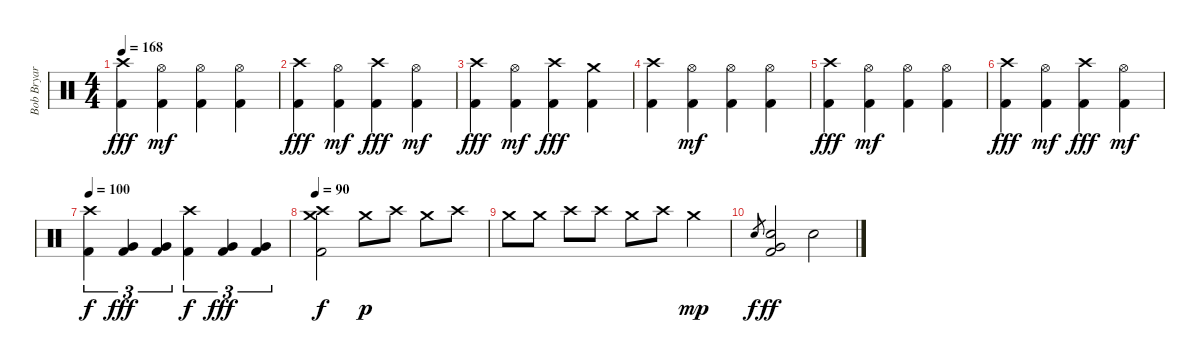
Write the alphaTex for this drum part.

\track ("Bob Bryar" "Bob Bryar") {instrument percussion}
\staff {score}
\articulation defaults
\ts (4 4)
\tempo 168
\clef neutral
\ks c
("Crash high (hit)" "Kick (hit) 2").4{dy fff} ("Hi-Hat (open)" "Kick (hit) 2").4{dy mf} ("Hi-Hat (open)" "Kick (hit) 2").4 ("Hi-Hat (open)" "Kick (hit) 2").4 |
("Crash high (hit)" "Kick (hit) 2").4{dy fff} ("Hi-Hat (open)" "Kick (hit) 2").4{dy mf} ("Crash high (hit)" "Kick (hit) 2").4{dy fff} ("Hi-Hat (open)" "Kick (hit) 2").4{dy mf} |
("Crash high (hit)" "Kick (hit) 2").4{dy fff} ("Hi-Hat (open)" "Kick (hit) 2").4{dy mf} ("Crash high (hit)" "Kick (hit) 2").4{dy fff} ("Crash medium (hit)" "Kick (hit) 2").4 |
("Crash high (hit)" "Kick (hit) 2").4 ("Hi-Hat (open)" "Kick (hit) 2").4{dy mf} ("Hi-Hat (open)" "Kick (hit) 2").4 ("Hi-Hat (open)" "Kick (hit) 2").4 |
("Crash high (hit)" "Kick (hit) 2").4{dy fff} ("Hi-Hat (open)" "Kick (hit) 2").4{dy mf} ("Hi-Hat (open)" "Kick (hit) 2").4 ("Hi-Hat (open)" "Kick (hit) 2").4 |
("Crash high (hit)" "Kick (hit) 2").4{dy fff} ("Hi-Hat (open)" "Kick (hit) 2").4{dy mf} ("Crash high (hit)" "Kick (hit) 2").4{dy fff} ("Hi-Hat (open)" "Kick (hit) 2").4{dy mf} |
\tempo 100
("Crash high (hit)" "Kick (hit) 2").4{tu (3 2) dy f} ("Very Low Tom (hit)" "Kick (hit) 2").4{tu (3 2) dy fff} ("Very Low Tom (hit)" "Kick (hit) 2").4{tu (3 2)} ("Crash high (hit)" "Kick (hit) 2").4{tu (3 2) dy f} ("Very Low Tom (hit)" "Kick (hit) 2").4{tu (3 2) dy fff} ("Very Low Tom (hit)" "Kick (hit) 2").4{tu (3 2)} |
\tempo 90
("Crash medium (hit)" "Crash high (hit)" "Kick (hit) 2").2{dy f} "Crash medium (hit)".8{dy p} "Crash high (hit)".8 "Crash medium (hit)".8 "Crash high (hit)".8 |
"Crash medium (hit)".8 "Crash medium (hit)".8 "Crash high (hit)".8 "Crash high (hit)".8 "Crash medium (hit)".8 "Crash high (hit)".8 "Crash medium (hit)".4{dy mp} |
"Electric Snare (hit)".8{gr dy f} ("Electric Snare (hit)" "Very Low Tom (hit)" "Kick (hit) 2").2{dy ff} "Snare (hit)".2
